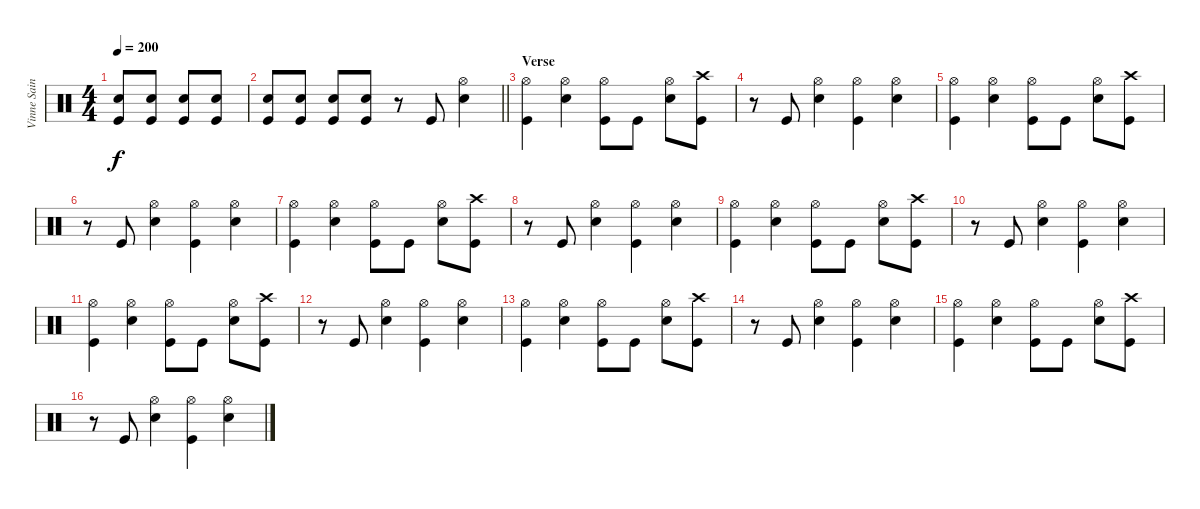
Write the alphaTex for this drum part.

\track ("Vinne Saint James" "Vinne Sain") {instrument percussion}
\staff {score}
\articulation defaults
\ts (4 4)
\tempo 200
\clef neutral
\ks c
("Electric Snare (hit)" "Kick (hit)").8{dy f} ("Electric Snare (hit)" "Kick (hit)").8 ("Electric Snare (hit)" "Kick (hit)").8 ("Electric Snare (hit)" "Kick (hit)").8 |
\barLineRight lightlight
("Electric Snare (hit)" "Kick (hit)").8 ("Electric Snare (hit)" "Kick (hit)").8 ("Electric Snare (hit)" "Kick (hit)").8 ("Electric Snare (hit)" "Kick (hit)").8 r.8 "Kick (hit)".8 ("Hi-Hat (open)" "Electric Snare (hit)").4 |
\section ("" "Verse")
("Hi-Hat (open)" "Kick (hit)").4 ("Hi-Hat (open)" "Electric Snare (hit)").4 ("Hi-Hat (open)" "Kick (hit)").8 "Kick (hit)".8 ("Hi-Hat (open)" "Electric Snare (hit)").8 ("Crash high (hit)" "Kick (hit)").8 |
r.8 "Kick (hit)".8 ("Hi-Hat (open)" "Electric Snare (hit)").4 ("Hi-Hat (open)" "Kick (hit)").4 ("Hi-Hat (open)" "Electric Snare (hit)").4 |
("Hi-Hat (open)" "Kick (hit)").4 ("Hi-Hat (open)" "Electric Snare (hit)").4 ("Hi-Hat (open)" "Kick (hit)").8 "Kick (hit)".8 ("Hi-Hat (open)" "Electric Snare (hit)").8 ("Crash high (hit)" "Kick (hit)").8 |
r.8 "Kick (hit)".8 ("Hi-Hat (open)" "Electric Snare (hit)").4 ("Hi-Hat (open)" "Kick (hit)").4 ("Hi-Hat (open)" "Electric Snare (hit)").4 |
("Hi-Hat (open)" "Kick (hit)").4 ("Hi-Hat (open)" "Electric Snare (hit)").4 ("Hi-Hat (open)" "Kick (hit)").8 "Kick (hit)".8 ("Hi-Hat (open)" "Electric Snare (hit)").8 ("Crash high (hit)" "Kick (hit)").8 |
r.8 "Kick (hit)".8 ("Hi-Hat (open)" "Electric Snare (hit)").4 ("Hi-Hat (open)" "Kick (hit)").4 ("Hi-Hat (open)" "Electric Snare (hit)").4 |
("Hi-Hat (open)" "Kick (hit)").4 ("Hi-Hat (open)" "Electric Snare (hit)").4 ("Hi-Hat (open)" "Kick (hit)").8 "Kick (hit)".8 ("Hi-Hat (open)" "Electric Snare (hit)").8 ("Crash high (hit)" "Kick (hit)").8 |
r.8 "Kick (hit)".8 ("Hi-Hat (open)" "Electric Snare (hit)").4 ("Hi-Hat (open)" "Kick (hit)").4 ("Hi-Hat (open)" "Electric Snare (hit)").4 |
("Hi-Hat (open)" "Kick (hit)").4 ("Hi-Hat (open)" "Electric Snare (hit)").4 ("Hi-Hat (open)" "Kick (hit)").8 "Kick (hit)".8 ("Hi-Hat (open)" "Electric Snare (hit)").8 ("Crash high (hit)" "Kick (hit)").8 |
r.8 "Kick (hit)".8 ("Hi-Hat (open)" "Electric Snare (hit)").4 ("Hi-Hat (open)" "Kick (hit)").4 ("Hi-Hat (open)" "Electric Snare (hit)").4 |
("Hi-Hat (open)" "Kick (hit)").4 ("Hi-Hat (open)" "Electric Snare (hit)").4 ("Hi-Hat (open)" "Kick (hit)").8 "Kick (hit)".8 ("Hi-Hat (open)" "Electric Snare (hit)").8 ("Crash high (hit)" "Kick (hit)").8 |
r.8 "Kick (hit)".8 ("Hi-Hat (open)" "Electric Snare (hit)").4 ("Hi-Hat (open)" "Kick (hit)").4 ("Hi-Hat (open)" "Electric Snare (hit)").4 |
("Hi-Hat (open)" "Kick (hit)").4 ("Hi-Hat (open)" "Electric Snare (hit)").4 ("Hi-Hat (open)" "Kick (hit)").8 "Kick (hit)".8 ("Hi-Hat (open)" "Electric Snare (hit)").8 ("Crash high (hit)" "Kick (hit)").8 |
r.8 "Kick (hit)".8 ("Hi-Hat (open)" "Electric Snare (hit)").4 ("Hi-Hat (open)" "Kick (hit)").4 ("Hi-Hat (open)" "Electric Snare (hit)").4
